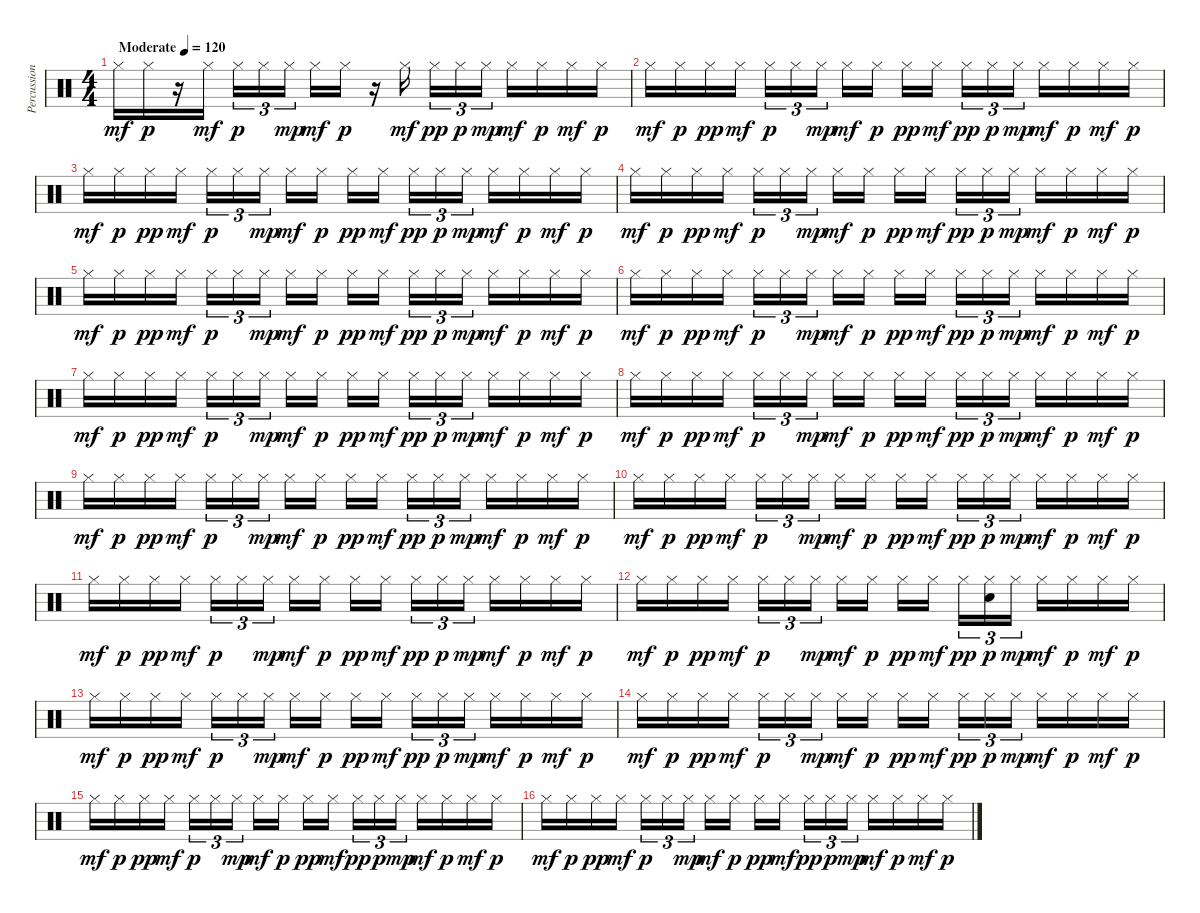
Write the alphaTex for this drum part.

\track ("Percussion" "Percussion") {instrument percussion}
\staff {score}
\articulation defaults
\ts (4 4)
\tempo (120 "Moderate")
\clef neutral
\ks c "Hi-Hat (closed)".16{dy mf} "Hi-Hat (closed)".16{dy p}
r.16 "Hi-Hat (closed)".16{dy mf} "Hi-Hat (closed)".16{tu (3 2) dy p} "Hi-Hat (closed)".16{tu (3 2)} "Hi-Hat (closed)".16{tu (3 2) dy mp beam splitsecondary} "Hi-Hat (closed)".16{dy mf} "Hi-Hat (closed)".16{dy p} r.16 "Hi-Hat (closed)".16{dy mf beam splitsecondary} "Hi-Hat (closed)".16{tu (3 2) dy pp} "Hi-Hat (closed)".16{tu (3 2) dy p} "Hi-Hat (closed)".16{tu (3 2) dy mp} "Hi-Hat (closed)".16{dy mf} "Hi-Hat (closed)".16{dy p} "Hi-Hat (closed)".16{dy mf} "Hi-Hat (closed)".16{dy p} |
"Hi-Hat (closed)".16{dy mf} "Hi-Hat (closed)".16{dy p} "Hi-Hat (closed)".16{dy pp} "Hi-Hat (closed)".16{dy mf} "Hi-Hat (closed)".16{tu (3 2) dy p} "Hi-Hat (closed)".16{tu (3 2)} "Hi-Hat (closed)".16{tu (3 2) dy mp beam splitsecondary} "Hi-Hat (closed)".16{dy mf} "Hi-Hat (closed)".16{dy p} "Hi-Hat (closed)".16{dy pp} "Hi-Hat (closed)".16{dy mf beam splitsecondary} "Hi-Hat (closed)".16{tu (3 2) dy pp} "Hi-Hat (closed)".16{tu (3 2) dy p} "Hi-Hat (closed)".16{tu (3 2) dy mp} "Hi-Hat (closed)".16{dy mf} "Hi-Hat (closed)".16{dy p} "Hi-Hat (closed)".16{dy mf} "Hi-Hat (closed)".16{dy p} |
"Hi-Hat (closed)".16{dy mf} "Hi-Hat (closed)".16{dy p} "Hi-Hat (closed)".16{dy pp} "Hi-Hat (closed)".16{dy mf} "Hi-Hat (closed)".16{tu (3 2) dy p} "Hi-Hat (closed)".16{tu (3 2)} "Hi-Hat (closed)".16{tu (3 2) dy mp beam splitsecondary} "Hi-Hat (closed)".16{dy mf} "Hi-Hat (closed)".16{dy p} "Hi-Hat (closed)".16{dy pp} "Hi-Hat (closed)".16{dy mf beam splitsecondary} "Hi-Hat (closed)".16{tu (3 2) dy pp} "Hi-Hat (closed)".16{tu (3 2) dy p} "Hi-Hat (closed)".16{tu (3 2) dy mp} "Hi-Hat (closed)".16{dy mf} "Hi-Hat (closed)".16{dy p} "Hi-Hat (closed)".16{dy mf} "Hi-Hat (closed)".16{dy p} |
"Hi-Hat (closed)".16{dy mf} "Hi-Hat (closed)".16{dy p} "Hi-Hat (closed)".16{dy pp} "Hi-Hat (closed)".16{dy mf} "Hi-Hat (closed)".16{tu (3 2) dy p} "Hi-Hat (closed)".16{tu (3 2)} "Hi-Hat (closed)".16{tu (3 2) dy mp beam splitsecondary} "Hi-Hat (closed)".16{dy mf} "Hi-Hat (closed)".16{dy p} "Hi-Hat (closed)".16{dy pp} "Hi-Hat (closed)".16{dy mf beam splitsecondary} "Hi-Hat (closed)".16{tu (3 2) dy pp} "Hi-Hat (closed)".16{tu (3 2) dy p} "Hi-Hat (closed)".16{tu (3 2) dy mp} "Hi-Hat (closed)".16{dy mf} "Hi-Hat (closed)".16{dy p} "Hi-Hat (closed)".16{dy mf} "Hi-Hat (closed)".16{dy p} |
"Hi-Hat (closed)".16{dy mf} "Hi-Hat (closed)".16{dy p} "Hi-Hat (closed)".16{dy pp} "Hi-Hat (closed)".16{dy mf} "Hi-Hat (closed)".16{tu (3 2) dy p} "Hi-Hat (closed)".16{tu (3 2)} "Hi-Hat (closed)".16{tu (3 2) dy mp beam splitsecondary} "Hi-Hat (closed)".16{dy mf} "Hi-Hat (closed)".16{dy p} "Hi-Hat (closed)".16{dy pp} "Hi-Hat (closed)".16{dy mf beam splitsecondary} "Hi-Hat (closed)".16{tu (3 2) dy pp} "Hi-Hat (closed)".16{tu (3 2) dy p} "Hi-Hat (closed)".16{tu (3 2) dy mp} "Hi-Hat (closed)".16{dy mf} "Hi-Hat (closed)".16{dy p} "Hi-Hat (closed)".16{dy mf} "Hi-Hat (closed)".16{dy p} |
"Hi-Hat (closed)".16{dy mf} "Hi-Hat (closed)".16{dy p} "Hi-Hat (closed)".16{dy pp} "Hi-Hat (closed)".16{dy mf} "Hi-Hat (closed)".16{tu (3 2) dy p} "Hi-Hat (closed)".16{tu (3 2)} "Hi-Hat (closed)".16{tu (3 2) dy mp beam splitsecondary} "Hi-Hat (closed)".16{dy mf} "Hi-Hat (closed)".16{dy p} "Hi-Hat (closed)".16{dy pp} "Hi-Hat (closed)".16{dy mf beam splitsecondary} "Hi-Hat (closed)".16{tu (3 2) dy pp} "Hi-Hat (closed)".16{tu (3 2) dy p} "Hi-Hat (closed)".16{tu (3 2) dy mp} "Hi-Hat (closed)".16{dy mf} "Hi-Hat (closed)".16{dy p} "Hi-Hat (closed)".16{dy mf} "Hi-Hat (closed)".16{dy p} |
"Hi-Hat (closed)".16{dy mf} "Hi-Hat (closed)".16{dy p} "Hi-Hat (closed)".16{dy pp} "Hi-Hat (closed)".16{dy mf} "Hi-Hat (closed)".16{tu (3 2) dy p} "Hi-Hat (closed)".16{tu (3 2)} "Hi-Hat (closed)".16{tu (3 2) dy mp beam splitsecondary} "Hi-Hat (closed)".16{dy mf} "Hi-Hat (closed)".16{dy p} "Hi-Hat (closed)".16{dy pp} "Hi-Hat (closed)".16{dy mf beam splitsecondary} "Hi-Hat (closed)".16{tu (3 2) dy pp} "Hi-Hat (closed)".16{tu (3 2) dy p} "Hi-Hat (closed)".16{tu (3 2) dy mp} "Hi-Hat (closed)".16{dy mf} "Hi-Hat (closed)".16{dy p} "Hi-Hat (closed)".16{dy mf} "Hi-Hat (closed)".16{dy p} |
"Hi-Hat (closed)".16{dy mf} "Hi-Hat (closed)".16{dy p} "Hi-Hat (closed)".16{dy pp} "Hi-Hat (closed)".16{dy mf} "Hi-Hat (closed)".16{tu (3 2) dy p} "Hi-Hat (closed)".16{tu (3 2)} "Hi-Hat (closed)".16{tu (3 2) dy mp beam splitsecondary} "Hi-Hat (closed)".16{dy mf} "Hi-Hat (closed)".16{dy p} "Hi-Hat (closed)".16{dy pp} "Hi-Hat (closed)".16{dy mf beam splitsecondary} "Hi-Hat (closed)".16{tu (3 2) dy pp} "Hi-Hat (closed)".16{tu (3 2) dy p} "Hi-Hat (closed)".16{tu (3 2) dy mp} "Hi-Hat (closed)".16{dy mf} "Hi-Hat (closed)".16{dy p} "Hi-Hat (closed)".16{dy mf} "Hi-Hat (closed)".16{dy p} |
"Hi-Hat (closed)".16{dy mf} "Hi-Hat (closed)".16{dy p} "Hi-Hat (closed)".16{dy pp} "Hi-Hat (closed)".16{dy mf} "Hi-Hat (closed)".16{tu (3 2) dy p} "Hi-Hat (closed)".16{tu (3 2)} "Hi-Hat (closed)".16{tu (3 2) dy mp beam splitsecondary} "Hi-Hat (closed)".16{dy mf} "Hi-Hat (closed)".16{dy p} "Hi-Hat (closed)".16{dy pp} "Hi-Hat (closed)".16{dy mf beam splitsecondary} "Hi-Hat (closed)".16{tu (3 2) dy pp} "Hi-Hat (closed)".16{tu (3 2) dy p} "Hi-Hat (closed)".16{tu (3 2) dy mp} "Hi-Hat (closed)".16{dy mf} "Hi-Hat (closed)".16{dy p} "Hi-Hat (closed)".16{dy mf} "Hi-Hat (closed)".16{dy p} |
"Hi-Hat (closed)".16{dy mf} "Hi-Hat (closed)".16{dy p} "Hi-Hat (closed)".16{dy pp} "Hi-Hat (closed)".16{dy mf} "Hi-Hat (closed)".16{tu (3 2) dy p} "Hi-Hat (closed)".16{tu (3 2)} "Hi-Hat (closed)".16{tu (3 2) dy mp beam splitsecondary} "Hi-Hat (closed)".16{dy mf} "Hi-Hat (closed)".16{dy p} "Hi-Hat (closed)".16{dy pp} "Hi-Hat (closed)".16{dy mf beam splitsecondary} "Hi-Hat (closed)".16{tu (3 2) dy pp} "Hi-Hat (closed)".16{tu (3 2) dy p} "Hi-Hat (closed)".16{tu (3 2) dy mp} "Hi-Hat (closed)".16{dy mf} "Hi-Hat (closed)".16{dy p} "Hi-Hat (closed)".16{dy mf} "Hi-Hat (closed)".16{dy p} |
"Hi-Hat (closed)".16{dy mf} "Hi-Hat (closed)".16{dy p} "Hi-Hat (closed)".16{dy pp} "Hi-Hat (closed)".16{dy mf} "Hi-Hat (closed)".16{tu (3 2) dy p} "Hi-Hat (closed)".16{tu (3 2)} "Hi-Hat (closed)".16{tu (3 2) dy mp beam splitsecondary} "Hi-Hat (closed)".16{dy mf} "Hi-Hat (closed)".16{dy p} "Hi-Hat (closed)".16{dy pp} "Hi-Hat (closed)".16{dy mf beam splitsecondary} "Hi-Hat (closed)".16{tu (3 2) dy pp} "Hi-Hat (closed)".16{tu (3 2) dy p} "Hi-Hat (closed)".16{tu (3 2) dy mp} "Hi-Hat (closed)".16{dy mf} "Hi-Hat (closed)".16{dy p} "Hi-Hat (closed)".16{dy mf} "Hi-Hat (closed)".16{dy p} |
"Hi-Hat (closed)".16{dy mf} "Hi-Hat (closed)".16{dy p} "Hi-Hat (closed)".16{dy pp} "Hi-Hat (closed)".16{dy mf} "Hi-Hat (closed)".16{tu (3 2) dy p} "Hi-Hat (closed)".16{tu (3 2)} "Hi-Hat (closed)".16{tu (3 2) dy mp beam splitsecondary} "Hi-Hat (closed)".16{dy mf} "Hi-Hat (closed)".16{dy p} "Hi-Hat (closed)".16{dy pp} "Hi-Hat (closed)".16{dy mf beam splitsecondary} "Hi-Hat (closed)".16{tu (3 2) dy pp} ("Hi-Hat (closed)" "Metronome (bell)").16{tu (3 2) dy p} "Hi-Hat (closed)".16{tu (3 2) dy mp} "Hi-Hat (closed)".16{dy mf} "Hi-Hat (closed)".16{dy p} "Hi-Hat (closed)".16{dy mf} "Hi-Hat (closed)".16{dy p} |
"Hi-Hat (closed)".16{dy mf} "Hi-Hat (closed)".16{dy p} "Hi-Hat (closed)".16{dy pp} "Hi-Hat (closed)".16{dy mf} "Hi-Hat (closed)".16{tu (3 2) dy p} "Hi-Hat (closed)".16{tu (3 2)} "Hi-Hat (closed)".16{tu (3 2) dy mp beam splitsecondary} "Hi-Hat (closed)".16{dy mf} "Hi-Hat (closed)".16{dy p} "Hi-Hat (closed)".16{dy pp} "Hi-Hat (closed)".16{dy mf beam splitsecondary} "Hi-Hat (closed)".16{tu (3 2) dy pp} "Hi-Hat (closed)".16{tu (3 2) dy p} "Hi-Hat (closed)".16{tu (3 2) dy mp} "Hi-Hat (closed)".16{dy mf} "Hi-Hat (closed)".16{dy p} "Hi-Hat (closed)".16{dy mf} "Hi-Hat (closed)".16{dy p} |
"Hi-Hat (closed)".16{dy mf} "Hi-Hat (closed)".16{dy p} "Hi-Hat (closed)".16{dy pp} "Hi-Hat (closed)".16{dy mf} "Hi-Hat (closed)".16{tu (3 2) dy p} "Hi-Hat (closed)".16{tu (3 2)} "Hi-Hat (closed)".16{tu (3 2) dy mp beam splitsecondary} "Hi-Hat (closed)".16{dy mf} "Hi-Hat (closed)".16{dy p} "Hi-Hat (closed)".16{dy pp} "Hi-Hat (closed)".16{dy mf beam splitsecondary} "Hi-Hat (closed)".16{tu (3 2) dy pp} "Hi-Hat (closed)".16{tu (3 2) dy p} "Hi-Hat (closed)".16{tu (3 2) dy mp} "Hi-Hat (closed)".16{dy mf} "Hi-Hat (closed)".16{dy p} "Hi-Hat (closed)".16{dy mf} "Hi-Hat (closed)".16{dy p} |
"Hi-Hat (closed)".16{dy mf} "Hi-Hat (closed)".16{dy p} "Hi-Hat (closed)".16{dy pp} "Hi-Hat (closed)".16{dy mf} "Hi-Hat (closed)".16{tu (3 2) dy p} "Hi-Hat (closed)".16{tu (3 2)} "Hi-Hat (closed)".16{tu (3 2) dy mp beam splitsecondary} "Hi-Hat (closed)".16{dy mf} "Hi-Hat (closed)".16{dy p} "Hi-Hat (closed)".16{dy pp} "Hi-Hat (closed)".16{dy mf beam splitsecondary} "Hi-Hat (closed)".16{tu (3 2) dy pp} "Hi-Hat (closed)".16{tu (3 2) dy p} "Hi-Hat (closed)".16{tu (3 2) dy mp} "Hi-Hat (closed)".16{dy mf} "Hi-Hat (closed)".16{dy p} "Hi-Hat (closed)".16{dy mf} "Hi-Hat (closed)".16{dy p} |
"Hi-Hat (closed)".16{dy mf} "Hi-Hat (closed)".16{dy p} "Hi-Hat (closed)".16{dy pp} "Hi-Hat (closed)".16{dy mf} "Hi-Hat (closed)".16{tu (3 2) dy p} "Hi-Hat (closed)".16{tu (3 2)} "Hi-Hat (closed)".16{tu (3 2) dy mp beam splitsecondary} "Hi-Hat (closed)".16{dy mf} "Hi-Hat (closed)".16{dy p} "Hi-Hat (closed)".16{dy pp} "Hi-Hat (closed)".16{dy mf beam splitsecondary} "Hi-Hat (closed)".16{tu (3 2) dy pp} "Hi-Hat (closed)".16{tu (3 2) dy p} "Hi-Hat (closed)".16{tu (3 2) dy mp} "Hi-Hat (closed)".16{dy mf} "Hi-Hat (closed)".16{dy p} "Hi-Hat (closed)".16{dy mf} "Hi-Hat (closed)".16{dy p}
